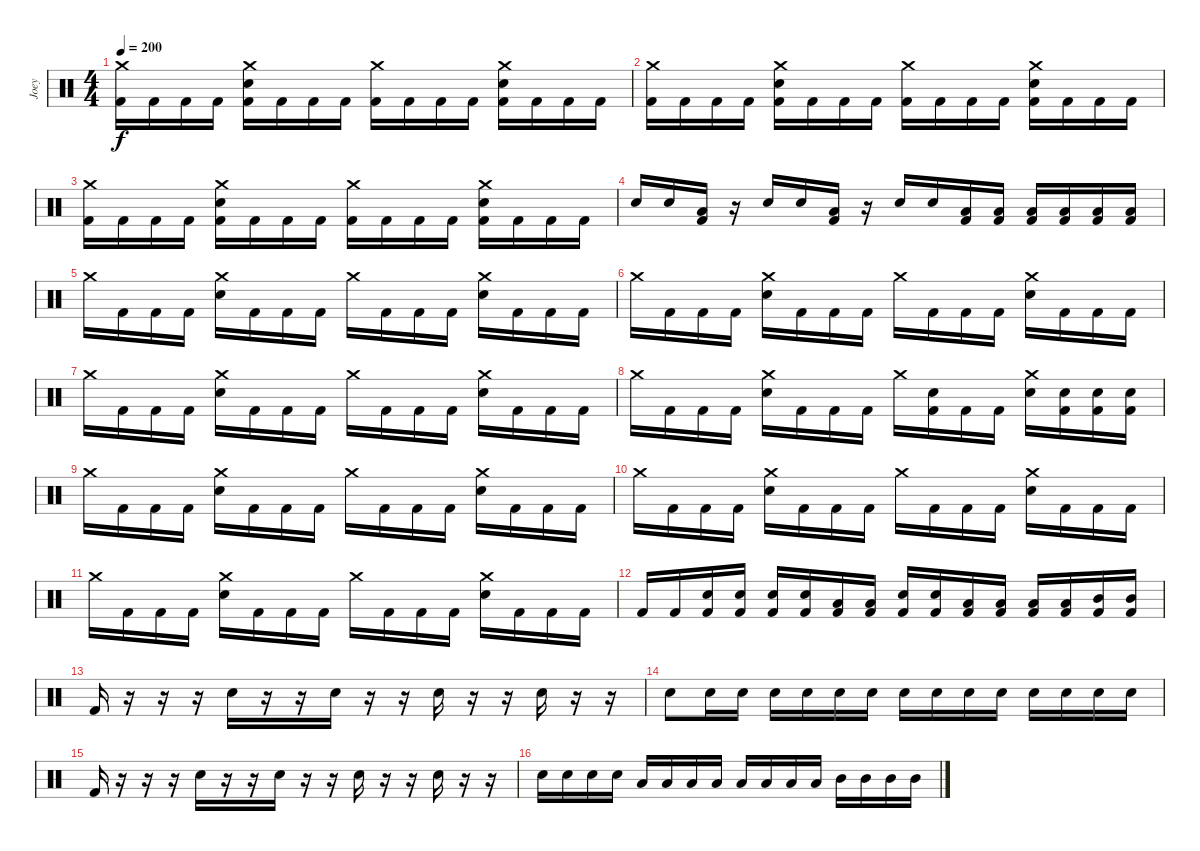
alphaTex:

\track ("Joey" "Joey") {instrument percussion}
\staff {score}
\articulation defaults
\ts (4 4)
\tempo 200
\clef neutral
\ks c
("Crash medium (hit)" "Kick (hit) 2").16{dy f} "Kick (hit) 2".16 "Kick (hit) 2".16 "Kick (hit) 2".16 ("Crash medium (hit)" "Electric Snare (hit)" "Kick (hit) 2").16 "Kick (hit) 2".16 "Kick (hit) 2".16 "Kick (hit) 2".16 ("Crash medium (hit)" "Kick (hit) 2").16 "Kick (hit) 2".16 "Kick (hit) 2".16 "Kick (hit) 2".16 ("Crash medium (hit)" "Electric Snare (hit)" "Kick (hit) 2").16 "Kick (hit) 2".16 "Kick (hit) 2".16 "Kick (hit) 2".16 |
("Crash medium (hit)" "Kick (hit) 2").16 "Kick (hit) 2".16 "Kick (hit) 2".16 "Kick (hit) 2".16 ("Crash medium (hit)" "Electric Snare (hit)" "Kick (hit) 2").16 "Kick (hit) 2".16 "Kick (hit) 2".16 "Kick (hit) 2".16 ("Crash medium (hit)" "Kick (hit) 2").16 "Kick (hit) 2".16 "Kick (hit) 2".16 "Kick (hit) 2".16 ("Crash medium (hit)" "Electric Snare (hit)" "Kick (hit) 2").16 "Kick (hit) 2".16 "Kick (hit) 2".16 "Kick (hit) 2".16 |
("Crash medium (hit)" "Kick (hit) 2").16 "Kick (hit) 2".16 "Kick (hit) 2".16 "Kick (hit) 2".16 ("Crash medium (hit)" "Electric Snare (hit)" "Kick (hit) 2").16 "Kick (hit) 2".16 "Kick (hit) 2".16 "Kick (hit) 2".16 ("Crash medium (hit)" "Kick (hit) 2").16 "Kick (hit) 2".16 "Kick (hit) 2".16 "Kick (hit) 2".16 ("Crash medium (hit)" "Electric Snare (hit)" "Kick (hit) 2").16 "Kick (hit) 2".16 "Kick (hit) 2".16 "Kick (hit) 2".16 |
"Electric Snare (hit)".16 "Electric Snare (hit)".16 ("Low Floor Tom (hit)" "Kick (hit) 2").16 r.16 "Electric Snare (hit)".16 "Electric Snare (hit)".16 ("Low Floor Tom (hit)" "Kick (hit) 2").16 r.16 "Electric Snare (hit)".16 "Electric Snare (hit)".16 ("Low Floor Tom (hit)" "Kick (hit) 2").16 ("Low Floor Tom (hit)" "Kick (hit) 2").16 ("Low Floor Tom (hit)" "Kick (hit) 2").16 ("Low Floor Tom (hit)" "Kick (hit) 2").16 ("Low Floor Tom (hit)" "Kick (hit) 2").16 ("Low Floor Tom (hit)" "Kick (hit) 2").16 |
"Crash medium (hit)".16 "Kick (hit) 2".16 "Kick (hit) 2".16 "Kick (hit) 2".16 ("Crash medium (hit)" "Electric Snare (hit)").16 "Kick (hit) 2".16 "Kick (hit) 2".16 "Kick (hit) 2".16 "Crash medium (hit)".16 "Kick (hit) 2".16 "Kick (hit) 2".16 "Kick (hit) 2".16 ("Crash medium (hit)" "Electric Snare (hit)").16 "Kick (hit) 2".16 "Kick (hit) 2".16 "Kick (hit) 2".16 |
"Crash medium (hit)".16 "Kick (hit) 2".16 "Kick (hit) 2".16 "Kick (hit) 2".16 ("Crash medium (hit)" "Electric Snare (hit)").16 "Kick (hit) 2".16 "Kick (hit) 2".16 "Kick (hit) 2".16 "Crash medium (hit)".16 "Kick (hit) 2".16 "Kick (hit) 2".16 "Kick (hit) 2".16 ("Crash medium (hit)" "Electric Snare (hit)").16 "Kick (hit) 2".16 "Kick (hit) 2".16 "Kick (hit) 2".16 |
"Crash medium (hit)".16 "Kick (hit) 2".16 "Kick (hit) 2".16 "Kick (hit) 2".16 ("Crash medium (hit)" "Electric Snare (hit)").16 "Kick (hit) 2".16 "Kick (hit) 2".16 "Kick (hit) 2".16 "Crash medium (hit)".16 "Kick (hit) 2".16 "Kick (hit) 2".16 "Kick (hit) 2".16 ("Crash medium (hit)" "Electric Snare (hit)").16 "Kick (hit) 2".16 "Kick (hit) 2".16 "Kick (hit) 2".16 |
"Crash medium (hit)".16 "Kick (hit) 2".16 "Kick (hit) 2".16 "Kick (hit) 2".16 ("Crash medium (hit)" "Electric Snare (hit)").16 "Kick (hit) 2".16 "Kick (hit) 2".16 "Kick (hit) 2".16 "Crash medium (hit)".16 ("Electric Snare (hit)" "Kick (hit) 2").16 "Kick (hit) 2".16 "Kick (hit) 2".16 ("Crash medium (hit)" "Electric Snare (hit)").16 ("Electric Snare (hit)" "Kick (hit) 2").16 ("Electric Snare (hit)" "Kick (hit) 2").16 ("Electric Snare (hit)" "Kick (hit) 2").16 |
"Crash medium (hit)".16 "Kick (hit) 2".16 "Kick (hit) 2".16 "Kick (hit) 2".16 ("Crash medium (hit)" "Electric Snare (hit)").16 "Kick (hit) 2".16 "Kick (hit) 2".16 "Kick (hit) 2".16 "Crash medium (hit)".16 "Kick (hit) 2".16 "Kick (hit) 2".16 "Kick (hit) 2".16 ("Crash medium (hit)" "Electric Snare (hit)").16 "Kick (hit) 2".16 "Kick (hit) 2".16 "Kick (hit) 2".16 |
"Crash medium (hit)".16 "Kick (hit) 2".16 "Kick (hit) 2".16 "Kick (hit) 2".16 ("Crash medium (hit)" "Electric Snare (hit)").16 "Kick (hit) 2".16 "Kick (hit) 2".16 "Kick (hit) 2".16 "Crash medium (hit)".16 "Kick (hit) 2".16 "Kick (hit) 2".16 "Kick (hit) 2".16 ("Crash medium (hit)" "Electric Snare (hit)").16 "Kick (hit) 2".16 "Kick (hit) 2".16 "Kick (hit) 2".16 |
"Crash medium (hit)".16 "Kick (hit) 2".16 "Kick (hit) 2".16 "Kick (hit) 2".16 ("Crash medium (hit)" "Electric Snare (hit)").16 "Kick (hit) 2".16 "Kick (hit) 2".16 "Kick (hit) 2".16 "Crash medium (hit)".16 "Kick (hit) 2".16 "Kick (hit) 2".16 "Kick (hit) 2".16 ("Crash medium (hit)" "Electric Snare (hit)").16 "Kick (hit) 2".16 "Kick (hit) 2".16 "Kick (hit) 2".16 |
"Kick (hit) 2".16 "Kick (hit) 2".16 ("Kick (hit) 2" "Electric Snare (hit)").16 ("Kick (hit) 2" "Electric Snare (hit)").16 ("Kick (hit) 2" "Electric Snare (hit)").16 ("Kick (hit) 2" "Electric Snare (hit)").16 ("Kick (hit) 2" "Low Floor Tom (hit)").16 ("Kick (hit) 2" "Low Floor Tom (hit)").16 ("Kick (hit) 2" "Electric Snare (hit)").16 ("Kick (hit) 2" "Electric Snare (hit)").16 ("Kick (hit) 2" "Low Floor Tom (hit)").16 ("Kick (hit) 2" "Low Floor Tom (hit)").16 ("Kick (hit) 2" "Low Tom (hit)").16 ("Kick (hit) 2" "Low Tom (hit)").16 ("Kick (hit) 2" "Mid Tom (hit)").16 ("Kick (hit) 2" "Mid Tom (hit)").16 |
"Kick (hit) 2".16 r.16 r.16 r.16 "Electric Snare (hit)".16 r.16 r.16 "Electric Snare (hit)".16 r.16 r.16 "Electric Snare (hit)".16 r.16 r.16 "Electric Snare (hit)".16 r.16 r.16 |
"Electric Snare (hit)".8 "Electric Snare (hit)".16 "Electric Snare (hit)".16 "Electric Snare (hit)".16 "Electric Snare (hit)".16 "Electric Snare (hit)".16 "Electric Snare (hit)".16 "Electric Snare (hit)".16 "Electric Snare (hit)".16 "Electric Snare (hit)".16 "Electric Snare (hit)".16 "Electric Snare (hit)".16 "Electric Snare (hit)".16 "Electric Snare (hit)".16 "Electric Snare (hit)".16 |
"Kick (hit) 2".16 r.16 r.16 r.16 "Electric Snare (hit)".16 r.16 r.16 "Electric Snare (hit)".16 r.16 r.16 "Electric Snare (hit)".16 r.16 r.16 "Electric Snare (hit)".16 r.16 r.16 |
"Electric Snare (hit)".16 "Electric Snare (hit)".16 "Electric Snare (hit)".16 "Electric Snare (hit)".16 "Low Floor Tom (hit)".16 "Low Floor Tom (hit)".16 "Low Floor Tom (hit)".16 "Low Floor Tom (hit)".16 "Low Tom (hit)".16 "Low Tom (hit)".16 "Low Tom (hit)".16 "Low Tom (hit)".16 "Mid Tom (hit)".16 "Mid Tom (hit)".16 "Mid Tom (hit)".16 "Mid Tom (hit)".16
